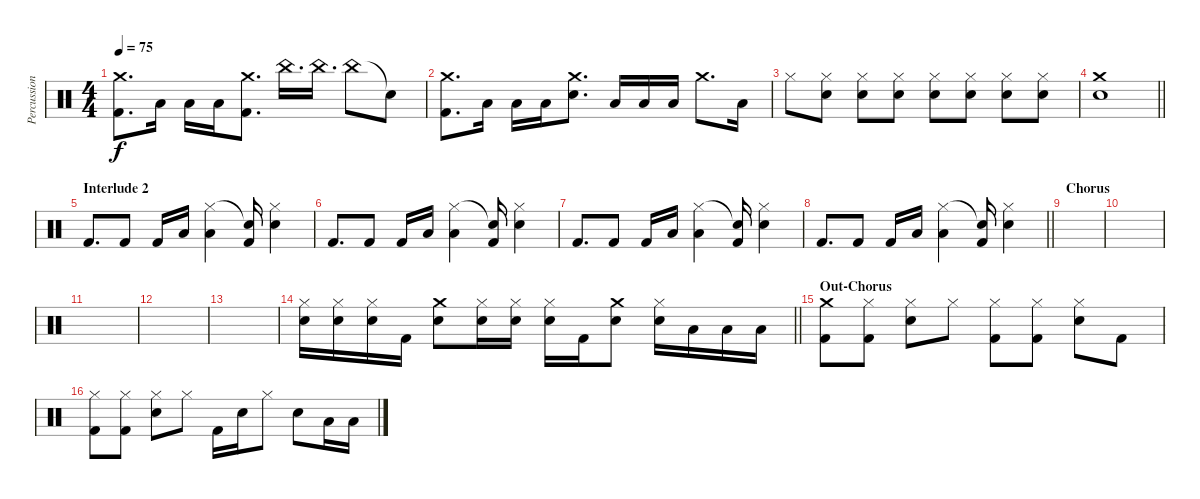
\track ("Percussion (Lemuel)" "Percussion") {instrument percussion}
\staff {score}
\articulation defaults
\ts (4 4)
\tempo 75
\clef neutral
\ks c
("Crash medium (hit)" "Kick (hit) 2").8{d dy f} "Low Tom (hit)".16 "Low Tom (hit)".16 "Low Tom (hit)".16 ("Crash medium (hit)" "Kick (hit) 2").8{d} "China (hit)".16{d} "China (hit)".16{d} "China (hit)".8 "Snare (hit)"{t}.8 |
("Crash medium (hit)" "Kick (hit) 2").8{d} "Low Tom (hit)".16 "Low Tom (hit)".16 "Low Tom (hit)".16 ("Crash medium (hit)" "Electric Snare (hit)").8{d} "Low Tom (hit)".16 "Low Tom (hit)".16 "Low Tom (hit)".16 "Crash medium (hit)".8{d} "Low Tom (hit)".16 |
"Hi-Hat (closed)".8 ("Electric Snare (hit)" "Hi-Hat (closed)").8 ("Electric Snare (hit)" "Hi-Hat (closed)").8 ("Electric Snare (hit)" "Hi-Hat (closed)").8 ("Electric Snare (hit)" "Hi-Hat (closed)").8 ("Electric Snare (hit)" "Hi-Hat (closed)").8 ("Electric Snare (hit)" "Hi-Hat (closed)").8 ("Electric Snare (hit)" "Hi-Hat (closed)").8 |
\barLineRight lightlight
("Crash medium (hit)" "Electric Snare (hit)").1 |
\section ("" "Interlude 2")
"Kick (hit) 2".8{d} "Kick (hit) 2".8 "Kick (hit) 2".16 "Low Tom (hit)".16 ("Low Tom (hit)" "Hi-Hat (closed)").4 ("Kick (hit) 2" "Snare (hit)"{t}).16 ("Electric Snare (hit)" "Hi-Hat (closed)").4 |
"Kick (hit) 2".8{d} "Kick (hit) 2".8 "Kick (hit) 2".16 "Low Tom (hit)".16 ("Low Tom (hit)" "Hi-Hat (closed)").4 ("Kick (hit) 2" "Snare (hit)"{t}).16 ("Electric Snare (hit)" "Hi-Hat (closed)").4 |
"Kick (hit) 2".8{d} "Kick (hit) 2".8 "Kick (hit) 2".16 "Low Tom (hit)".16 ("Low Tom (hit)" "Hi-Hat (closed)").4 ("Kick (hit) 2" "Snare (hit)"{t}).16 ("Electric Snare (hit)" "Hi-Hat (closed)").4 |
\barLineRight lightlight "Kick (hit) 2".8{d} "Kick (hit) 2".8 "Kick (hit) 2".16 "Low Tom (hit)".16
("Low Tom (hit)" "Hi-Hat (closed)").4 ("Kick (hit) 2" "Snare (hit)"{t}).16 ("Electric Snare (hit)" "Hi-Hat (closed)").4 |
\section ("" "Chorus")
|
|
|
|
|
\barLineRight lightlight
("Electric Snare (hit)" "Hi-Hat (closed)").16 ("Electric Snare (hit)" "Hi-Hat (closed)").16 ("Electric Snare (hit)" "Hi-Hat (closed)").16 "Kick (hit) 2".16 ("Electric Snare (hit)" "Crash medium (hit)").8 ("Electric Snare (hit)" "Hi-Hat (closed)").16 ("Electric Snare (hit)" "Hi-Hat (closed)").16 ("Electric Snare (hit)" "Hi-Hat (closed)").16 "Kick (hit) 2".16 ("Electric Snare (hit)" "Crash medium (hit)").8 ("Electric Snare (hit)" "Hi-Hat (closed)").16 "Low Tom (hit)".16 "Low Tom (hit)".16 "Low Tom (hit)".16 |
\section ("" "Out-Chorus")
("Kick (hit) 2" "Crash medium (hit)").8 ("Kick (hit) 2" "Hi-Hat (closed)").8 ("Electric Snare (hit)" "Hi-Hat (closed)").8 "Hi-Hat (closed)".8 ("Kick (hit) 2" "Hi-Hat (closed)").8 ("Kick (hit) 2" "Hi-Hat (closed)").8 ("Electric Snare (hit)" "Hi-Hat (closed)").8 "Kick (hit) 2".8 |
("Hi-Hat (closed)" "Kick (hit) 2").8 ("Hi-Hat (closed)" "Kick (hit) 2").8 ("Hi-Hat (closed)" "Electric Snare (hit)").8 "Hi-Hat (closed)".8 "Kick (hit) 2".16 "Electric Snare (hit)".16 "Hi-Hat (closed)".8 "Electric Snare (hit)".8 "Low Tom (hit)".16 "Low Tom (hit)".16
